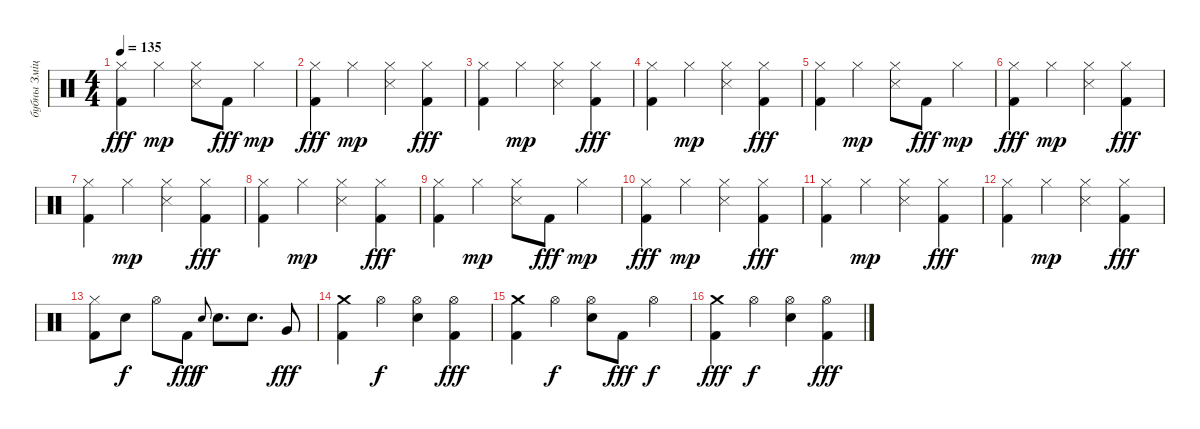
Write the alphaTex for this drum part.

\track ("бубны Змiцер" "бубны Змiц") {solo instrument percussion}
\staff {score}
\articulation defaults
\ts (4 4)
\tempo 135
\clef neutral
\ks c
("Hi-Hat (closed)" "Kick (hit) 2").4{dy fff} "Hi-Hat (closed)".4{dy mp} ("Hi-Hat (closed)" "Snare (side stick) 3").8 "Kick (hit) 2".8{dy fff} "Hi-Hat (closed)".4{dy mp} |
("Hi-Hat (closed)" "Kick (hit) 2").4{dy fff} "Hi-Hat (closed)".4{dy mp} ("Hi-Hat (closed)" "Snare (side stick) 3").4 ("Hi-Hat (closed)" "Kick (hit) 2").4{dy fff} |
("Hi-Hat (closed)" "Kick (hit) 2").4 "Hi-Hat (closed)".4{dy mp} ("Hi-Hat (closed)" "Snare (side stick) 3").4 ("Hi-Hat (closed)" "Kick (hit) 2").4{dy fff} |
("Hi-Hat (closed)" "Kick (hit) 2").4 "Hi-Hat (closed)".4{dy mp} ("Hi-Hat (closed)" "Snare (side stick) 3").4 ("Hi-Hat (closed)" "Kick (hit) 2").4{dy fff} |
("Hi-Hat (closed)" "Kick (hit) 2").4 "Hi-Hat (closed)".4{dy mp} ("Hi-Hat (closed)" "Snare (side stick) 3").8 "Kick (hit) 2".8{dy fff} "Hi-Hat (closed)".4{dy mp} |
("Hi-Hat (closed)" "Kick (hit) 2").4{dy fff} "Hi-Hat (closed)".4{dy mp} ("Hi-Hat (closed)" "Snare (side stick) 3").4 ("Hi-Hat (closed)" "Kick (hit) 2").4{dy fff} |
("Hi-Hat (closed)" "Kick (hit) 2").4 "Hi-Hat (closed)".4{dy mp} ("Hi-Hat (closed)" "Snare (side stick) 3").4 ("Hi-Hat (closed)" "Kick (hit) 2").4{dy fff} |
("Hi-Hat (closed)" "Kick (hit) 2").4 "Hi-Hat (closed)".4{dy mp} ("Hi-Hat (closed)" "Snare (side stick) 3").4 ("Hi-Hat (closed)" "Kick (hit) 2").4{dy fff} |
("Hi-Hat (closed)" "Kick (hit) 2").4 "Hi-Hat (closed)".4{dy mp} ("Hi-Hat (closed)" "Snare (side stick) 3").8 "Kick (hit) 2".8{dy fff} "Hi-Hat (closed)".4{dy mp} |
("Hi-Hat (closed)" "Kick (hit) 2").4{dy fff} "Hi-Hat (closed)".4{dy mp} ("Hi-Hat (closed)" "Snare (side stick) 3").4 ("Hi-Hat (closed)" "Kick (hit) 2").4{dy fff} |
("Hi-Hat (closed)" "Kick (hit) 2").4 "Hi-Hat (closed)".4{dy mp} ("Hi-Hat (closed)" "Snare (side stick) 3").4 ("Hi-Hat (closed)" "Kick (hit) 2").4{dy fff} |
("Hi-Hat (closed)" "Kick (hit) 2").4 "Hi-Hat (closed)".4{dy mp} ("Hi-Hat (closed)" "Snare (side stick) 3").4 ("Hi-Hat (closed)" "Kick (hit) 2").4{dy fff} |
("Hi-Hat (closed)" "Kick (hit) 2").8 "Electric Snare (hit)".8{dy f} "Hi-Hat (open)".8 "Kick (hit) 2".8{dy fff} "Electric Snare (hit)".8{gr onbeat dy f} "Electric Snare (hit)".8{d} "Electric Snare (hit)".8{d} "Very Low Tom (hit)".8{dy fff} |
("Crash medium (hit)" "Kick (hit) 2").4 "Hi-Hat (open)".4{dy f} ("Hi-Hat (open)" "Electric Snare (hit)").4 ("Hi-Hat (open)" "Kick (hit) 2").4{dy fff} |
("Crash medium (hit)" "Kick (hit) 2").4 "Hi-Hat (open)".4{dy f} ("Hi-Hat (open)" "Electric Snare (hit)").8 "Kick (hit) 2".8{dy fff} "Hi-Hat (open)".4{dy f} |
("Crash medium (hit)" "Kick (hit) 2").4{dy fff} "Hi-Hat (open)".4{dy f} ("Hi-Hat (open)" "Electric Snare (hit)").4 ("Hi-Hat (open)" "Kick (hit) 2").4{dy fff}
